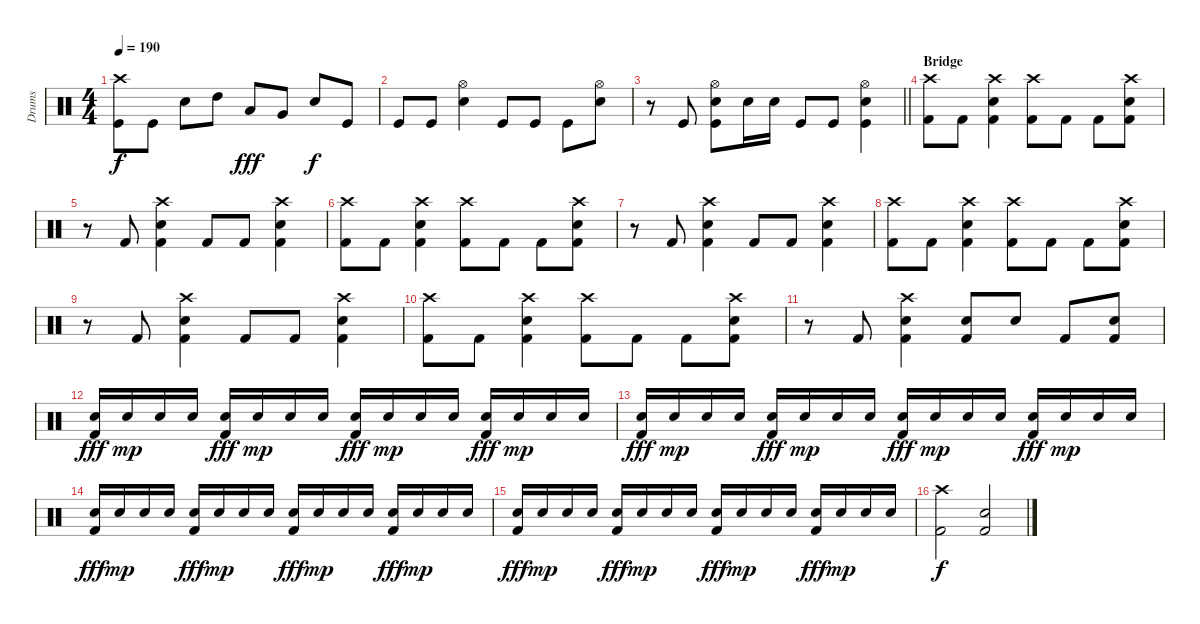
\track ("Drums" "Drums") {instrument percussion}
\staff {score}
\articulation defaults
\ts (4 4)
\tempo 190
\clef neutral
\ks c
("Crash high (hit)" "Kick (hit)").8{dy f} "Kick (hit)".8 "Snare (hit) 2".8 "High Tom (hit)".8 "Low Tom (hit)".8{dy fff} "Very Low Tom (hit)".8 "Snare (hit) 2".8{dy f} "Kick (hit)".8 |
"Kick (hit)".8 "Kick (hit)".8 ("Hi-Hat (open)" "Snare (hit) 2").4 "Kick (hit)".8 "Kick (hit)".8 "Kick (hit)".8 ("Hi-Hat (open)" "Snare (hit) 2").8 |
\barLineRight lightlight
r.8 "Kick (hit)".8 ("Hi-Hat (open)" "Snare (hit) 2" "Kick (hit)").8 "Snare (hit) 2".16 "Snare (hit) 2".16 "Kick (hit)".8 "Kick (hit)".8 ("Hi-Hat (open)" "Snare (hit) 2" "Kick (hit)").4 |
\section ("" "Bridge")
("Crash high (hit)" "Kick (hit) 2").8 "Kick (hit) 2".8 ("Crash high (hit)" "Snare (hit) 2" "Kick (hit) 2").4 ("Crash high (hit)" "Kick (hit) 2").8 "Kick (hit) 2".8 "Kick (hit) 2".8 ("Crash high (hit)" "Snare (hit) 2" "Kick (hit) 2").8 |
r.8 "Kick (hit) 2".8 ("Crash high (hit)" "Snare (hit) 2" "Kick (hit) 2").4 "Kick (hit) 2".8 "Kick (hit) 2".8 ("Crash high (hit)" "Snare (hit) 2" "Kick (hit) 2").4 |
("Crash high (hit)" "Kick (hit) 2").8 "Kick (hit) 2".8 ("Crash high (hit)" "Snare (hit) 2" "Kick (hit) 2").4 ("Crash high (hit)" "Kick (hit) 2").8 "Kick (hit) 2".8 "Kick (hit) 2".8 ("Crash high (hit)" "Snare (hit) 2" "Kick (hit) 2").8 |
r.8 "Kick (hit) 2".8 ("Crash high (hit)" "Snare (hit) 2" "Kick (hit) 2").4 "Kick (hit) 2".8 "Kick (hit) 2".8 ("Crash high (hit)" "Snare (hit) 2" "Kick (hit) 2").4 |
("Crash high (hit)" "Kick (hit) 2").8 "Kick (hit) 2".8 ("Crash high (hit)" "Snare (hit) 2" "Kick (hit) 2").4 ("Crash high (hit)" "Kick (hit) 2").8 "Kick (hit) 2".8 "Kick (hit) 2".8 ("Crash high (hit)" "Snare (hit) 2" "Kick (hit) 2").8 |
r.8 "Kick (hit) 2".8 ("Crash high (hit)" "Snare (hit) 2" "Kick (hit) 2").4 "Kick (hit) 2".8 "Kick (hit) 2".8 ("Crash high (hit)" "Snare (hit) 2" "Kick (hit) 2").4 |
("Crash high (hit)" "Kick (hit) 2").8 "Kick (hit) 2".8 ("Crash high (hit)" "Snare (hit) 2" "Kick (hit) 2").4 ("Crash high (hit)" "Kick (hit) 2").8 "Kick (hit) 2".8 "Kick (hit) 2".8 ("Crash high (hit)" "Snare (hit) 2" "Kick (hit) 2").8 |
r.8 "Kick (hit) 2".8 ("Crash high (hit)" "Snare (hit) 2" "Kick (hit) 2").4 ("Snare (hit) 2" "Kick (hit) 2").8 "Snare (hit) 2".8 "Kick (hit) 2".8 ("Snare (hit) 2" "Kick (hit) 2").8 |
("Snare (hit) 2" "Kick (hit) 2").16{dy fff} "Snare (hit) 2".16{dy mp} "Snare (hit) 2".16 "Snare (hit) 2".16 ("Snare (hit) 2" "Kick (hit) 2").16{dy fff} "Snare (hit) 2".16{dy mp} "Snare (hit) 2".16 "Snare (hit) 2".16 ("Snare (hit) 2" "Kick (hit) 2").16{dy fff} "Snare (hit) 2".16{dy mp} "Snare (hit) 2".16 "Snare (hit) 2".16 ("Snare (hit) 2" "Kick (hit) 2").16{dy fff} "Snare (hit) 2".16{dy mp} "Snare (hit) 2".16 "Snare (hit) 2".16 |
("Snare (hit) 2" "Kick (hit) 2").16{dy fff} "Snare (hit) 2".16{dy mp} "Snare (hit) 2".16 "Snare (hit) 2".16 ("Snare (hit) 2" "Kick (hit) 2").16{dy fff} "Snare (hit) 2".16{dy mp} "Snare (hit) 2".16 "Snare (hit) 2".16 ("Snare (hit) 2" "Kick (hit) 2").16{dy fff} "Snare (hit) 2".16{dy mp} "Snare (hit) 2".16 "Snare (hit) 2".16 ("Snare (hit) 2" "Kick (hit) 2").16{dy fff} "Snare (hit) 2".16{dy mp} "Snare (hit) 2".16 "Snare (hit) 2".16 |
("Snare (hit) 2" "Kick (hit) 2").16{dy fff} "Snare (hit) 2".16{dy mp} "Snare (hit) 2".16 "Snare (hit) 2".16 ("Snare (hit) 2" "Kick (hit) 2").16{dy fff} "Snare (hit) 2".16{dy mp} "Snare (hit) 2".16 "Snare (hit) 2".16 ("Snare (hit) 2" "Kick (hit) 2").16{dy fff} "Snare (hit) 2".16{dy mp} "Snare (hit) 2".16 "Snare (hit) 2".16 ("Snare (hit) 2" "Kick (hit) 2").16{dy fff} "Snare (hit) 2".16{dy mp} "Snare (hit) 2".16 "Snare (hit) 2".16 |
("Snare (hit) 2" "Kick (hit) 2").16{dy fff} "Snare (hit) 2".16{dy mp} "Snare (hit) 2".16 "Snare (hit) 2".16 ("Snare (hit) 2" "Kick (hit) 2").16{dy fff} "Snare (hit) 2".16{dy mp} "Snare (hit) 2".16 "Snare (hit) 2".16 ("Snare (hit) 2" "Kick (hit) 2").16{dy fff} "Snare (hit) 2".16{dy mp} "Snare (hit) 2".16 "Snare (hit) 2".16 ("Snare (hit) 2" "Kick (hit) 2").16{dy fff} "Snare (hit) 2".16{dy mp} "Snare (hit) 2".16 "Snare (hit) 2".16 |
("Crash high (hit)" "Kick (hit) 2").2{dy f} ("Snare (hit) 2" "Kick (hit) 2").2
